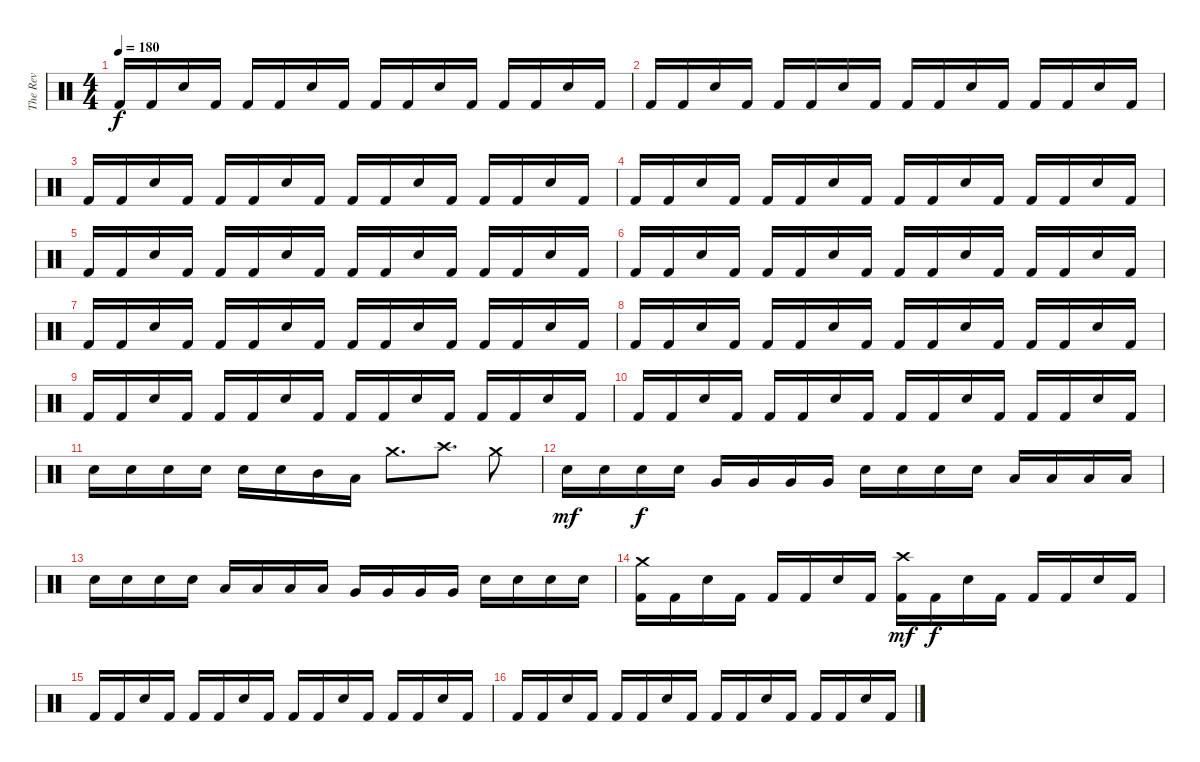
\track ("The Rev" "The Rev") {instrument percussion}
\staff {score}
\articulation defaults
\ts (4 4)
\tempo 180
\clef neutral
\ks c "Kick (hit) 2".16{dy f} "Kick (hit) 2".16 "Snare (hit) 2".16 "Kick (hit) 2".16 "Kick (hit) 2".16 "Kick (hit) 2".16 "Snare (hit) 2".16 "Kick (hit) 2".16 "Kick (hit) 2".16 "Kick (hit) 2".16 "Snare (hit) 2".16 "Kick (hit) 2".16 "Kick (hit) 2".16 "Kick (hit) 2".16 "Snare (hit) 2".16 "Kick (hit) 2".16
|
"Kick (hit) 2".16 "Kick (hit) 2".16 "Snare (hit) 2".16 "Kick (hit) 2".16 "Kick (hit) 2".16 "Kick (hit) 2".16 "Snare (hit) 2".16 "Kick (hit) 2".16 "Kick (hit) 2".16 "Kick (hit) 2".16 "Snare (hit) 2".16 "Kick (hit) 2".16 "Kick (hit) 2".16 "Kick (hit) 2".16 "Snare (hit) 2".16 "Kick (hit) 2".16 |
"Kick (hit) 2".16 "Kick (hit) 2".16 "Snare (hit) 2".16 "Kick (hit) 2".16 "Kick (hit) 2".16 "Kick (hit) 2".16 "Snare (hit) 2".16 "Kick (hit) 2".16 "Kick (hit) 2".16 "Kick (hit) 2".16 "Snare (hit) 2".16 "Kick (hit) 2".16 "Kick (hit) 2".16 "Kick (hit) 2".16 "Snare (hit) 2".16 "Kick (hit) 2".16 |
"Kick (hit) 2".16 "Kick (hit) 2".16 "Snare (hit) 2".16 "Kick (hit) 2".16 "Kick (hit) 2".16 "Kick (hit) 2".16 "Snare (hit) 2".16 "Kick (hit) 2".16 "Kick (hit) 2".16 "Kick (hit) 2".16 "Snare (hit) 2".16 "Kick (hit) 2".16 "Kick (hit) 2".16 "Kick (hit) 2".16 "Snare (hit) 2".16 "Kick (hit) 2".16 |
"Kick (hit) 2".16 "Kick (hit) 2".16 "Snare (hit) 2".16 "Kick (hit) 2".16 "Kick (hit) 2".16 "Kick (hit) 2".16 "Snare (hit) 2".16 "Kick (hit) 2".16 "Kick (hit) 2".16 "Kick (hit) 2".16 "Snare (hit) 2".16 "Kick (hit) 2".16 "Kick (hit) 2".16 "Kick (hit) 2".16 "Snare (hit) 2".16 "Kick (hit) 2".16 |
"Kick (hit) 2".16 "Kick (hit) 2".16 "Snare (hit) 2".16 "Kick (hit) 2".16 "Kick (hit) 2".16 "Kick (hit) 2".16 "Snare (hit) 2".16 "Kick (hit) 2".16 "Kick (hit) 2".16 "Kick (hit) 2".16 "Snare (hit) 2".16 "Kick (hit) 2".16 "Kick (hit) 2".16 "Kick (hit) 2".16 "Snare (hit) 2".16 "Kick (hit) 2".16 |
"Kick (hit) 2".16 "Kick (hit) 2".16 "Snare (hit) 2".16 "Kick (hit) 2".16 "Kick (hit) 2".16 "Kick (hit) 2".16 "Snare (hit) 2".16 "Kick (hit) 2".16 "Kick (hit) 2".16 "Kick (hit) 2".16 "Snare (hit) 2".16 "Kick (hit) 2".16 "Kick (hit) 2".16 "Kick (hit) 2".16 "Snare (hit) 2".16 "Kick (hit) 2".16 |
"Kick (hit) 2".16 "Kick (hit) 2".16 "Snare (hit) 2".16 "Kick (hit) 2".16 "Kick (hit) 2".16 "Kick (hit) 2".16 "Snare (hit) 2".16 "Kick (hit) 2".16 "Kick (hit) 2".16 "Kick (hit) 2".16 "Snare (hit) 2".16 "Kick (hit) 2".16 "Kick (hit) 2".16 "Kick (hit) 2".16 "Snare (hit) 2".16 "Kick (hit) 2".16 |
"Kick (hit) 2".16 "Kick (hit) 2".16 "Snare (hit) 2".16 "Kick (hit) 2".16 "Kick (hit) 2".16 "Kick (hit) 2".16 "Snare (hit) 2".16 "Kick (hit) 2".16 "Kick (hit) 2".16 "Kick (hit) 2".16 "Snare (hit) 2".16 "Kick (hit) 2".16 "Kick (hit) 2".16 "Kick (hit) 2".16 "Snare (hit) 2".16 "Kick (hit) 2".16 |
"Kick (hit) 2".16 "Kick (hit) 2".16 "Snare (hit) 2".16 "Kick (hit) 2".16 "Kick (hit) 2".16 "Kick (hit) 2".16 "Snare (hit) 2".16 "Kick (hit) 2".16 "Kick (hit) 2".16 "Kick (hit) 2".16 "Snare (hit) 2".16 "Kick (hit) 2".16 "Kick (hit) 2".16 "Kick (hit) 2".16 "Snare (hit) 2".16 "Kick (hit) 2".16 |
"Snare (hit) 2".16 "Snare (hit) 2".16 "Snare (hit) 2".16 "Snare (hit) 2".16 "Snare (hit) 2".16 "Snare (hit) 2".16 "Mid Tom (hit)".16 "Low Tom (hit)".16 "Crash medium (hit)".8{d} "Crash high (hit)".8{d} "Crash medium (hit)".8 |
"Snare (hit) 2".16{dy mf} "Snare (hit) 2".16 "Snare (hit) 2".16{dy f} "Snare (hit) 2".16 "Very Low Tom (hit)".16 "Very Low Tom (hit)".16 "Very Low Tom (hit)".16 "Very Low Tom (hit)".16 "Snare (hit) 2".16 "Snare (hit) 2".16 "Snare (hit) 2".16 "Snare (hit) 2".16 "Low Tom (hit)".16 "Low Tom (hit)".16 "Low Tom (hit)".16 "Low Tom (hit)".16 |
"Snare (hit) 2".16 "Snare (hit) 2".16 "Snare (hit) 2".16 "Snare (hit) 2".16 "Low Tom (hit)".16 "Low Tom (hit)".16 "Low Tom (hit)".16 "Low Tom (hit)".16 "Very Low Tom (hit)".16 "Very Low Tom (hit)".16 "Very Low Tom (hit)".16 "Very Low Tom (hit)".16 "Snare (hit) 2".16 "Snare (hit) 2".16 "Snare (hit) 2".16 "Snare (hit) 2".16 |
("Crash medium (hit)" "Kick (hit) 2").16 "Kick (hit) 2".16 "Snare (hit) 2".16 "Kick (hit) 2".16 "Kick (hit) 2".16 "Kick (hit) 2".16 "Snare (hit) 2".16 "Kick (hit) 2".16 ("Crash high (hit)" "Kick (hit) 2").16{dy mf} "Kick (hit) 2".16{dy f} "Snare (hit) 2".16 "Kick (hit) 2".16 "Kick (hit) 2".16 "Kick (hit) 2".16 "Snare (hit) 2".16 "Kick (hit) 2".16 |
"Kick (hit) 2".16 "Kick (hit) 2".16 "Snare (hit) 2".16 "Kick (hit) 2".16 "Kick (hit) 2".16 "Kick (hit) 2".16 "Snare (hit) 2".16 "Kick (hit) 2".16 "Kick (hit) 2".16 "Kick (hit) 2".16 "Snare (hit) 2".16 "Kick (hit) 2".16 "Kick (hit) 2".16 "Kick (hit) 2".16 "Snare (hit) 2".16 "Kick (hit) 2".16 |
"Kick (hit) 2".16 "Kick (hit) 2".16 "Snare (hit) 2".16 "Kick (hit) 2".16 "Kick (hit) 2".16 "Kick (hit) 2".16 "Snare (hit) 2".16 "Kick (hit) 2".16 "Kick (hit) 2".16 "Kick (hit) 2".16 "Snare (hit) 2".16 "Kick (hit) 2".16 "Kick (hit) 2".16 "Kick (hit) 2".16 "Snare (hit) 2".16 "Kick (hit) 2".16
